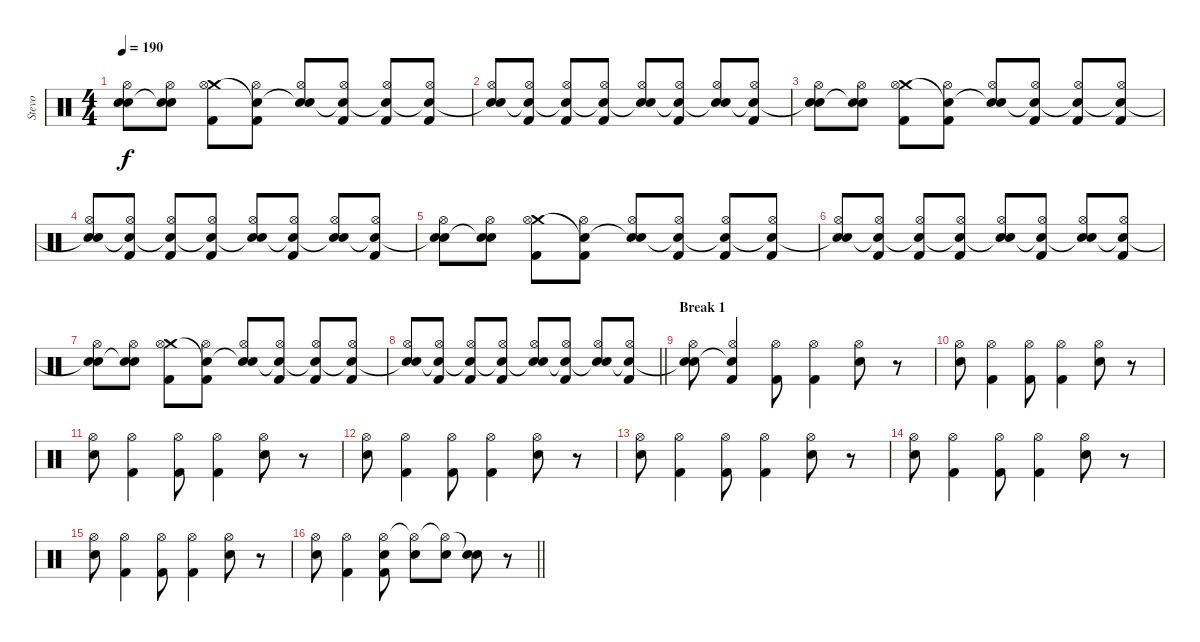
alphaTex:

\track ("Stevo" "Stevo") {instrument percussion}
\staff {score}
\articulation defaults
\ts (4 4)
\tempo 190
\clef neutral
\ks c
("Snare (hit)"{t} "Hi-Hat (open)" "Electric Snare (hit)").8{dy f} ("Snare (hit)"{t} "Hi-Hat (open)" "Electric Snare (hit)").8 ("Crash medium (hit)" "Hi-Hat (open)" "Kick (hit) 2").8 ("Snare (hit)"{t} "Hi-Hat (open)" "Kick (hit) 2").8 ("Snare (hit)"{t} "Hi-Hat (open)" "Electric Snare (hit)").8 ("Snare (hit)"{t} "Hi-Hat (open)" "Kick (hit) 2").8 ("Snare (hit)"{t} "Hi-Hat (open)" "Kick (hit) 2").8 ("Snare (hit)"{t} "Hi-Hat (open)" "Kick (hit) 2").8 |
("Snare (hit)"{t} "Hi-Hat (open)" "Electric Snare (hit)").8 ("Snare (hit)"{t} "Hi-Hat (open)" "Kick (hit) 2").8 ("Snare (hit)"{t} "Hi-Hat (open)" "Kick (hit) 2").8 ("Snare (hit)"{t} "Hi-Hat (open)" "Kick (hit) 2").8 ("Snare (hit)"{t} "Hi-Hat (open)" "Electric Snare (hit)").8 ("Snare (hit)"{t} "Hi-Hat (open)" "Kick (hit) 2").8 ("Snare (hit)"{t} "Hi-Hat (open)" "Electric Snare (hit)").8 ("Snare (hit)"{t} "Hi-Hat (open)" "Kick (hit) 2").8 |
("Snare (hit)"{t} "Hi-Hat (open)" "Electric Snare (hit)").8 ("Snare (hit)"{t} "Hi-Hat (open)" "Electric Snare (hit)").8 ("Crash medium (hit)" "Hi-Hat (open)" "Kick (hit) 2").8 ("Snare (hit)"{t} "Hi-Hat (open)" "Kick (hit) 2").8 ("Snare (hit)"{t} "Hi-Hat (open)" "Electric Snare (hit)").8 ("Snare (hit)"{t} "Hi-Hat (open)" "Kick (hit) 2").8 ("Snare (hit)"{t} "Hi-Hat (open)" "Kick (hit) 2").8 ("Snare (hit)"{t} "Hi-Hat (open)" "Kick (hit) 2").8 |
("Snare (hit)"{t} "Hi-Hat (open)" "Electric Snare (hit)").8 ("Snare (hit)"{t} "Hi-Hat (open)" "Kick (hit) 2").8 ("Snare (hit)"{t} "Hi-Hat (open)" "Kick (hit) 2").8 ("Snare (hit)"{t} "Hi-Hat (open)" "Kick (hit) 2").8 ("Snare (hit)"{t} "Hi-Hat (open)" "Electric Snare (hit)").8 ("Snare (hit)"{t} "Hi-Hat (open)" "Kick (hit) 2").8 ("Snare (hit)"{t} "Hi-Hat (open)" "Electric Snare (hit)").8 ("Snare (hit)"{t} "Hi-Hat (open)" "Kick (hit) 2").8 |
("Snare (hit)"{t} "Hi-Hat (open)" "Electric Snare (hit)").8 ("Snare (hit)"{t} "Hi-Hat (open)" "Electric Snare (hit)").8 ("Crash medium (hit)" "Hi-Hat (open)" "Kick (hit) 2").8 ("Snare (hit)"{t} "Hi-Hat (open)" "Kick (hit) 2").8 ("Snare (hit)"{t} "Hi-Hat (open)" "Electric Snare (hit)").8 ("Snare (hit)"{t} "Hi-Hat (open)" "Kick (hit) 2").8 ("Snare (hit)"{t} "Hi-Hat (open)" "Kick (hit) 2").8 ("Snare (hit)"{t} "Hi-Hat (open)" "Kick (hit) 2").8 |
("Snare (hit)"{t} "Hi-Hat (open)" "Electric Snare (hit)").8 ("Snare (hit)"{t} "Hi-Hat (open)" "Kick (hit) 2").8 ("Snare (hit)"{t} "Hi-Hat (open)" "Kick (hit) 2").8 ("Snare (hit)"{t} "Hi-Hat (open)" "Kick (hit) 2").8 ("Snare (hit)"{t} "Hi-Hat (open)" "Electric Snare (hit)").8 ("Snare (hit)"{t} "Hi-Hat (open)" "Kick (hit) 2").8 ("Snare (hit)"{t} "Hi-Hat (open)" "Electric Snare (hit)").8 ("Snare (hit)"{t} "Hi-Hat (open)" "Kick (hit) 2").8 |
("Snare (hit)"{t} "Hi-Hat (open)" "Electric Snare (hit)").8 ("Snare (hit)"{t} "Hi-Hat (open)" "Electric Snare (hit)").8 ("Crash medium (hit)" "Hi-Hat (open)" "Kick (hit) 2").8 ("Snare (hit)"{t} "Hi-Hat (open)" "Kick (hit) 2").8 ("Snare (hit)"{t} "Hi-Hat (open)" "Electric Snare (hit)").8 ("Snare (hit)"{t} "Hi-Hat (open)" "Kick (hit) 2").8 ("Snare (hit)"{t} "Hi-Hat (open)" "Kick (hit) 2").8 ("Snare (hit)"{t} "Hi-Hat (open)" "Kick (hit) 2").8 |
\barLineRight lightlight
("Snare (hit)"{t} "Hi-Hat (open)" "Electric Snare (hit)").8 ("Snare (hit)"{t} "Hi-Hat (open)" "Kick (hit) 2").8 ("Snare (hit)"{t} "Hi-Hat (open)" "Kick (hit) 2").8 ("Snare (hit)"{t} "Hi-Hat (open)" "Kick (hit) 2").8 ("Snare (hit)"{t} "Hi-Hat (open)" "Electric Snare (hit)").8 ("Snare (hit)"{t} "Hi-Hat (open)" "Kick (hit) 2").8 ("Snare (hit)"{t} "Hi-Hat (open)" "Electric Snare (hit)").8 ("Snare (hit)"{t} "Hi-Hat (open)" "Kick (hit) 2").8 |
\section ("" "Break 1")
("Snare (hit)"{t} "Hi-Hat (open)" "Electric Snare (hit)").8 ("Snare (hit)"{t} "Hi-Hat (open)" "Kick (hit) 2").4 ("Hi-Hat (open)" "Kick (hit) 2").8 ("Hi-Hat (open)" "Kick (hit) 2").4 ("Hi-Hat (open)" "Electric Snare (hit)").8 r.8 |
("Hi-Hat (open)" "Electric Snare (hit)").8 ("Hi-Hat (open)" "Kick (hit) 2").4 ("Hi-Hat (open)" "Kick (hit) 2").8 ("Hi-Hat (open)" "Kick (hit) 2").4 ("Hi-Hat (open)" "Electric Snare (hit)").8 r.8 |
("Hi-Hat (open)" "Electric Snare (hit)").8 ("Hi-Hat (open)" "Kick (hit) 2").4 ("Hi-Hat (open)" "Kick (hit) 2").8 ("Hi-Hat (open)" "Kick (hit) 2").4 ("Hi-Hat (open)" "Electric Snare (hit)").8 r.8 |
("Hi-Hat (open)" "Electric Snare (hit)").8 ("Hi-Hat (open)" "Kick (hit) 2").4 ("Hi-Hat (open)" "Kick (hit) 2").8 ("Hi-Hat (open)" "Kick (hit) 2").4 ("Hi-Hat (open)" "Electric Snare (hit)").8 r.8 |
("Hi-Hat (open)" "Electric Snare (hit)").8 ("Hi-Hat (open)" "Kick (hit) 2").4 ("Hi-Hat (open)" "Kick (hit) 2").8 ("Hi-Hat (open)" "Kick (hit) 2").4 ("Hi-Hat (open)" "Electric Snare (hit)").8 r.8 |
("Hi-Hat (open)" "Electric Snare (hit)").8 ("Hi-Hat (open)" "Kick (hit) 2").4 ("Hi-Hat (open)" "Kick (hit) 2").8 ("Hi-Hat (open)" "Kick (hit) 2").4 ("Hi-Hat (open)" "Electric Snare (hit)").8 r.8 |
("Hi-Hat (open)" "Electric Snare (hit)").8 ("Hi-Hat (open)" "Kick (hit) 2").4 ("Hi-Hat (open)" "Kick (hit) 2").8 ("Hi-Hat (open)" "Kick (hit) 2").4 ("Hi-Hat (open)" "Electric Snare (hit)").8 r.8 |
\barLineRight lightlight
("Hi-Hat (open)" "Electric Snare (hit)").8 ("Hi-Hat (open)" "Kick (hit) 2").4 ("Hi-Hat (open)" "Electric Snare (hit)" "Kick (hit) 2").8 ("Hi-Hat (open)"{t} "Electric Snare (hit)").8 ("Hi-Hat (open)"{t} "Electric Snare (hit)").8 ("Snare (hit)"{t} "Electric Snare (hit)").8 r.8
